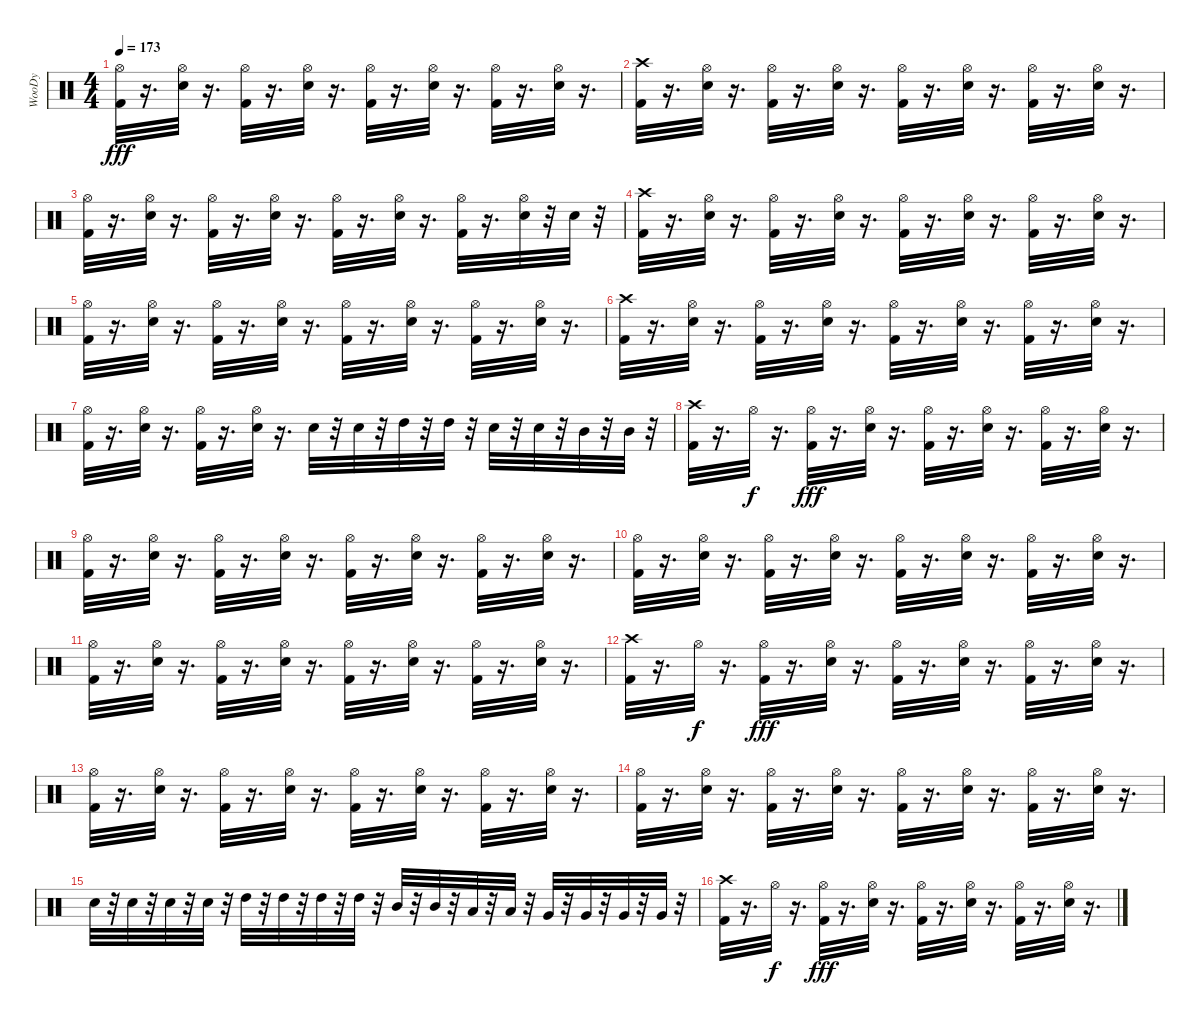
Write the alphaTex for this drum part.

\track ("WooDy" "WooDy") {instrument percussion}
\staff {score}
\articulation defaults
\ts (4 4)
\tempo 173
\clef neutral
\ks c
("Kick (hit) 2" "Hi-Hat (open)").32{dy fff} r.16{d} ("Electric Snare (hit)" "Hi-Hat (open)").32 r.16{d} ("Kick (hit) 2" "Hi-Hat (open)").32 r.16{d} ("Electric Snare (hit)" "Hi-Hat (open)").32 r.16{d} ("Kick (hit) 2" "Hi-Hat (open)").32 r.16{d} ("Electric Snare (hit)" "Hi-Hat (open)").32 r.16{d} ("Kick (hit) 2" "Hi-Hat (open)").32 r.16{d} ("Electric Snare (hit)" "Hi-Hat (open)").32 r.16{d} |
("Kick (hit) 2" "Crash high (hit)").32 r.16{d} ("Electric Snare (hit)" "Hi-Hat (open)").32 r.16{d} ("Kick (hit) 2" "Hi-Hat (open)").32 r.16{d} ("Electric Snare (hit)" "Hi-Hat (open)").32 r.16{d} ("Kick (hit) 2" "Hi-Hat (open)").32 r.16{d} ("Electric Snare (hit)" "Hi-Hat (open)").32 r.16{d} ("Kick (hit) 2" "Hi-Hat (open)").32 r.16{d} ("Electric Snare (hit)" "Hi-Hat (open)").32 r.16{d} |
("Kick (hit) 2" "Hi-Hat (open)").32 r.16{d} ("Electric Snare (hit)" "Hi-Hat (open)").32 r.16{d} ("Kick (hit) 2" "Hi-Hat (open)").32 r.16{d} ("Electric Snare (hit)" "Hi-Hat (open)").32 r.16{d} ("Kick (hit) 2" "Hi-Hat (open)").32 r.16{d} ("Electric Snare (hit)" "Hi-Hat (open)").32 r.16{d} ("Kick (hit) 2" "Hi-Hat (open)").32 r.16{d} ("Electric Snare (hit)" "Hi-Hat (open)").32 r.32 "Electric Snare (hit)".32 r.32 |
("Kick (hit) 2" "Crash high (hit)").32 r.16{d} ("Electric Snare (hit)" "Hi-Hat (open)").32 r.16{d} ("Kick (hit) 2" "Hi-Hat (open)").32 r.16{d} ("Electric Snare (hit)" "Hi-Hat (open)").32 r.16{d} ("Kick (hit) 2" "Hi-Hat (open)").32 r.16{d} ("Electric Snare (hit)" "Hi-Hat (open)").32 r.16{d} ("Kick (hit) 2" "Hi-Hat (open)").32 r.16{d} ("Electric Snare (hit)" "Hi-Hat (open)").32 r.16{d} |
("Kick (hit) 2" "Hi-Hat (open)").32 r.16{d} ("Electric Snare (hit)" "Hi-Hat (open)").32 r.16{d} ("Kick (hit) 2" "Hi-Hat (open)").32 r.16{d} ("Electric Snare (hit)" "Hi-Hat (open)").32 r.16{d} ("Kick (hit) 2" "Hi-Hat (open)").32 r.16{d} ("Electric Snare (hit)" "Hi-Hat (open)").32 r.16{d} ("Kick (hit) 2" "Hi-Hat (open)").32 r.16{d} ("Electric Snare (hit)" "Hi-Hat (open)").32 r.16{d} |
("Kick (hit) 2" "Crash high (hit)").32 r.16{d} ("Electric Snare (hit)" "Hi-Hat (open)").32 r.16{d} ("Kick (hit) 2" "Hi-Hat (open)").32 r.16{d} ("Electric Snare (hit)" "Hi-Hat (open)").32 r.16{d} ("Kick (hit) 2" "Hi-Hat (open)").32 r.16{d} ("Electric Snare (hit)" "Hi-Hat (open)").32 r.16{d} ("Kick (hit) 2" "Hi-Hat (open)").32 r.16{d} ("Electric Snare (hit)" "Hi-Hat (open)").32 r.16{d} |
("Kick (hit) 2" "Hi-Hat (open)").32 r.16{d} ("Electric Snare (hit)" "Hi-Hat (open)").32 r.16{d} ("Kick (hit) 2" "Hi-Hat (open)").32 r.16{d} ("Electric Snare (hit)" "Hi-Hat (open)").32 r.16{d} "Electric Snare (hit)".32 r.32 "Electric Snare (hit)".32 r.32 "High Tom (hit)".32 r.32 "High Tom (hit)".32 r.32 "Electric Snare (hit)".32 r.32 "Electric Snare (hit)".32 r.32 "Mid Tom (hit)".32 r.32 "Mid Tom (hit)".32 r.32 |
("Kick (hit) 2" "Crash high (hit)").32 r.16{d} "Hi-Hat (open)".32{dy f} r.16{d} ("Kick (hit) 2" "Hi-Hat (open)").32{dy fff} r.16{d} ("Electric Snare (hit)" "Hi-Hat (open)").32 r.16{d} ("Kick (hit) 2" "Hi-Hat (open)").32 r.16{d} ("Electric Snare (hit)" "Hi-Hat (open)").32 r.16{d} ("Kick (hit) 2" "Hi-Hat (open)").32 r.16{d} ("Electric Snare (hit)" "Hi-Hat (open)").32 r.16{d} |
("Kick (hit) 2" "Hi-Hat (open)").32 r.16{d} ("Electric Snare (hit)" "Hi-Hat (open)").32 r.16{d} ("Kick (hit) 2" "Hi-Hat (open)").32 r.16{d} ("Electric Snare (hit)" "Hi-Hat (open)").32 r.16{d} ("Kick (hit) 2" "Hi-Hat (open)").32 r.16{d} ("Electric Snare (hit)" "Hi-Hat (open)").32 r.16{d} ("Kick (hit) 2" "Hi-Hat (open)").32 r.16{d} ("Electric Snare (hit)" "Hi-Hat (open)").32 r.16{d} |
("Kick (hit) 2" "Hi-Hat (open)").32 r.16{d} ("Electric Snare (hit)" "Hi-Hat (open)").32 r.16{d} ("Kick (hit) 2" "Hi-Hat (open)").32 r.16{d} ("Electric Snare (hit)" "Hi-Hat (open)").32 r.16{d} ("Kick (hit) 2" "Hi-Hat (open)").32 r.16{d} ("Electric Snare (hit)" "Hi-Hat (open)").32 r.16{d} ("Kick (hit) 2" "Hi-Hat (open)").32 r.16{d} ("Electric Snare (hit)" "Hi-Hat (open)").32 r.16{d} |
("Kick (hit) 2" "Hi-Hat (open)").32 r.16{d} ("Electric Snare (hit)" "Hi-Hat (open)").32 r.16{d} ("Kick (hit) 2" "Hi-Hat (open)").32 r.16{d} ("Electric Snare (hit)" "Hi-Hat (open)").32 r.16{d} ("Kick (hit) 2" "Hi-Hat (open)").32 r.16{d} ("Electric Snare (hit)" "Hi-Hat (open)").32 r.16{d} ("Kick (hit) 2" "Hi-Hat (open)").32 r.16{d} ("Electric Snare (hit)" "Hi-Hat (open)").32 r.16{d} |
("Kick (hit) 2" "Crash high (hit)").32 r.16{d} "Hi-Hat (open)".32{dy f} r.16{d} ("Kick (hit) 2" "Hi-Hat (open)").32{dy fff} r.16{d} ("Electric Snare (hit)" "Hi-Hat (open)").32 r.16{d} ("Kick (hit) 2" "Hi-Hat (open)").32 r.16{d} ("Electric Snare (hit)" "Hi-Hat (open)").32 r.16{d} ("Kick (hit) 2" "Hi-Hat (open)").32 r.16{d} ("Electric Snare (hit)" "Hi-Hat (open)").32 r.16{d} |
("Kick (hit) 2" "Hi-Hat (open)").32 r.16{d} ("Electric Snare (hit)" "Hi-Hat (open)").32 r.16{d} ("Kick (hit) 2" "Hi-Hat (open)").32 r.16{d} ("Electric Snare (hit)" "Hi-Hat (open)").32 r.16{d} ("Kick (hit) 2" "Hi-Hat (open)").32 r.16{d} ("Electric Snare (hit)" "Hi-Hat (open)").32 r.16{d} ("Kick (hit) 2" "Hi-Hat (open)").32 r.16{d} ("Electric Snare (hit)" "Hi-Hat (open)").32 r.16{d} |
("Kick (hit) 2" "Hi-Hat (open)").32 r.16{d} ("Electric Snare (hit)" "Hi-Hat (open)").32 r.16{d} ("Kick (hit) 2" "Hi-Hat (open)").32 r.16{d} ("Electric Snare (hit)" "Hi-Hat (open)").32 r.16{d} ("Kick (hit) 2" "Hi-Hat (open)").32 r.16{d} ("Electric Snare (hit)" "Hi-Hat (open)").32 r.16{d} ("Kick (hit) 2" "Hi-Hat (open)").32 r.16{d} ("Electric Snare (hit)" "Hi-Hat (open)").32 r.16{d} |
"Electric Snare (hit)".32 r.32 "Electric Snare (hit)".32 r.32 "Electric Snare (hit)".32 r.32 "Electric Snare (hit)".32 r.32 "High Tom (hit)".32 r.32 "High Tom (hit)".32 r.32 "High Tom (hit)".32 r.32 "High Tom (hit)".32 r.32 "Mid Tom (hit)".32 r.32 "Mid Tom (hit)".32 r.32 "Low Tom (hit)".32 r.32 "Low Tom (hit)".32 r.32 "Very Low Tom (hit)".32 r.32 "Very Low Tom (hit)".32 r.32 "Very Low Tom (hit)".32 r.32 "Very Low Tom (hit)".32 r.32 |
("Kick (hit) 2" "Crash high (hit)").32 r.16{d} "Hi-Hat (open)".32{dy f} r.16{d} ("Kick (hit) 2" "Hi-Hat (open)").32{dy fff} r.16{d} ("Electric Snare (hit)" "Hi-Hat (open)").32 r.16{d} ("Kick (hit) 2" "Hi-Hat (open)").32 r.16{d} ("Electric Snare (hit)" "Hi-Hat (open)").32 r.16{d} ("Kick (hit) 2" "Hi-Hat (open)").32 r.16{d} ("Electric Snare (hit)" "Hi-Hat (open)").32 r.16{d}
